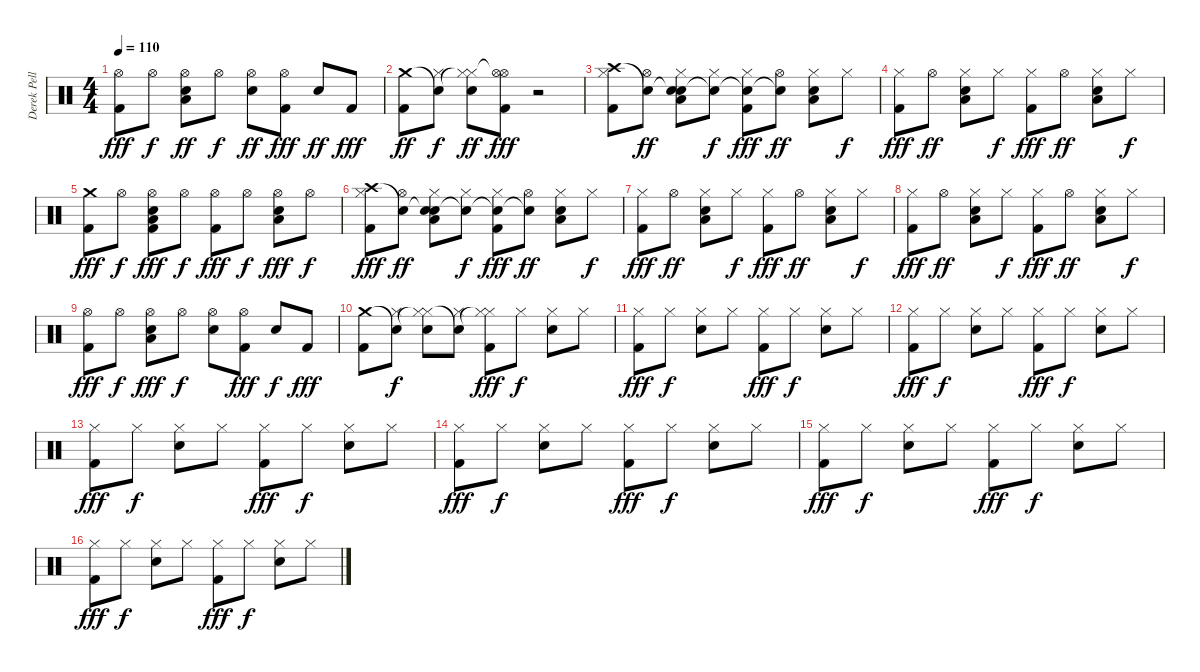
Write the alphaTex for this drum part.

\track ("Derek Pellici" "Derek Pell") {instrument percussion}
\staff {score}
\articulation defaults
\ts (4 4)
\tempo 110
\clef neutral
\ks c
("Hi-Hat (open)" "Kick (hit) 2").8{dy fff} "Hi-Hat (open)".8{dy f} ("Hi-Hat (open)" "Low Floor Tom (hit)" "Snare (hit) 2").8{dy ff} "Hi-Hat (open)".8{dy f} ("Hi-Hat (open)" "Snare (hit) 2").8{dy ff} ("Hi-Hat (open)" "Kick (hit) 2").8{dy fff} "Snare (hit) 2".8{dy ff} "Kick (hit) 2".8{dy fff} |
("Crash medium (hit)" "Kick (hit) 2").8{dy ff} ("Snare (hit)"{t} "Hi-Hat (closed)").8{dy f} ("Hi-Hat (closed)"{t} "Hi-Hat (closed)" "Snare (hit) 2").8{dy ff} ("Hi-Hat (open)"{t} "Hi-Hat (open)" "Kick (hit) 2").8{dy fff} r.2 |
("Crash high (hit)" "Hi-Hat (closed)" "Kick (hit) 2").8 ("Snare (hit)"{t} "Hi-Hat (open)").8{dy ff} ("Snare (hit)"{t} "Hi-Hat (closed)" "Low Floor Tom (hit)" "Snare (hit) 2").8 ("Snare (hit)"{t} "Hi-Hat (closed)").8{dy f} ("Snare (hit)"{t} "Hi-Hat (closed)" "Kick (hit) 2").8{dy fff} ("Snare (hit)"{t} "Hi-Hat (open)").8{dy ff} ("Hi-Hat (closed)" "Low Floor Tom (hit)" "Snare (hit) 2").8 "Hi-Hat (closed)".8{dy f} |
("Hi-Hat (closed)" "Kick (hit) 2").8{dy fff} "Hi-Hat (open)".8{dy ff} ("Hi-Hat (closed)" "Low Floor Tom (hit)" "Snare (hit) 2").8 "Hi-Hat (closed)".8{dy f} ("Hi-Hat (closed)" "Kick (hit) 2").8{dy fff} "Hi-Hat (open)".8{dy ff} ("Hi-Hat (closed)" "Low Floor Tom (hit)" "Snare (hit) 2").8 "Hi-Hat (closed)".8{dy f} |
("Crash medium (hit)" "Kick (hit) 2").8{dy fff} "Hi-Hat (open)".8{dy f} ("Hi-Hat (open)" "Low Floor Tom (hit)" "Snare (hit) 2" "Kick (hit) 2").8{dy fff} "Hi-Hat (open)".8{dy f} ("Hi-Hat (open)" "Kick (hit) 2").8{dy fff} "Hi-Hat (open)".8{dy f} ("Hi-Hat (open)" "Low Floor Tom (hit)" "Snare (hit) 2").8{dy fff} "Hi-Hat (open)".8{dy f} |
("Crash high (hit)" "Hi-Hat (closed)" "Kick (hit) 2").8{dy fff} ("Snare (hit)"{t} "Hi-Hat (open)").8{dy ff} ("Snare (hit)"{t} "Hi-Hat (closed)" "Low Floor Tom (hit)" "Snare (hit) 2").8 ("Snare (hit)"{t} "Hi-Hat (closed)").8{dy f} ("Snare (hit)"{t} "Hi-Hat (closed)" "Kick (hit) 2").8{dy fff} ("Snare (hit)"{t} "Hi-Hat (open)").8{dy ff} ("Hi-Hat (closed)" "Low Floor Tom (hit)" "Snare (hit) 2").8 "Hi-Hat (closed)".8{dy f} |
("Hi-Hat (closed)" "Kick (hit) 2").8{dy fff} "Hi-Hat (open)".8{dy ff} ("Hi-Hat (closed)" "Low Floor Tom (hit)" "Snare (hit) 2").8 "Hi-Hat (closed)".8{dy f} ("Hi-Hat (closed)" "Kick (hit) 2").8{dy fff} "Hi-Hat (open)".8{dy ff} ("Hi-Hat (closed)" "Low Floor Tom (hit)" "Snare (hit) 2").8 "Hi-Hat (closed)".8{dy f} |
("Hi-Hat (closed)" "Kick (hit) 2").8{dy fff} "Hi-Hat (open)".8{dy ff} ("Hi-Hat (closed)" "Low Floor Tom (hit)" "Snare (hit) 2").8 "Hi-Hat (closed)".8{dy f} ("Hi-Hat (closed)" "Kick (hit) 2").8{dy fff} "Hi-Hat (open)".8{dy ff} ("Hi-Hat (closed)" "Low Floor Tom (hit)" "Snare (hit) 2").8 "Hi-Hat (closed)".8{dy f} |
("Hi-Hat (open)" "Kick (hit) 2").8{dy fff} "Hi-Hat (open)".8{dy f} ("Hi-Hat (open)" "Low Floor Tom (hit)" "Snare (hit) 2").8{dy fff} "Hi-Hat (open)".8{dy f} ("Hi-Hat (open)" "Snare (hit) 2").8 ("Hi-Hat (open)" "Kick (hit) 2").8{dy fff} "Snare (hit) 2".8{dy f} "Kick (hit) 2".8{dy fff} |
("Crash medium (hit)" "Kick (hit) 2").8 ("Snare (hit)"{t} "Hi-Hat (closed)").8{dy f} ("Hi-Hat (closed)"{t} "Hi-Hat (closed)" "Snare (hit) 2").8 ("Snare (hit)"{t} "Hi-Hat (closed)").8 ("Hi-Hat (closed)"{t} "Hi-Hat (closed)" "Kick (hit) 2").8{dy fff} "Hi-Hat (closed)".8{dy f} ("Hi-Hat (closed)" "Snare (hit) 2").8 "Hi-Hat (closed)".8 |
("Hi-Hat (closed)" "Kick (hit) 2").8{dy fff} "Hi-Hat (closed)".8{dy f} ("Hi-Hat (closed)" "Snare (hit) 2").8 "Hi-Hat (closed)".8 ("Hi-Hat (closed)" "Kick (hit) 2").8{dy fff} "Hi-Hat (closed)".8{dy f} ("Hi-Hat (closed)" "Snare (hit) 2").8 "Hi-Hat (closed)".8 |
("Hi-Hat (closed)" "Kick (hit) 2").8{dy fff} "Hi-Hat (closed)".8{dy f} ("Hi-Hat (closed)" "Snare (hit) 2").8 "Hi-Hat (closed)".8 ("Hi-Hat (closed)" "Kick (hit) 2").8{dy fff} "Hi-Hat (closed)".8{dy f} ("Hi-Hat (closed)" "Snare (hit) 2").8 "Hi-Hat (closed)".8 |
("Hi-Hat (closed)" "Kick (hit) 2").8{dy fff} "Hi-Hat (closed)".8{dy f} ("Hi-Hat (closed)" "Snare (hit) 2").8 "Hi-Hat (closed)".8 ("Hi-Hat (closed)" "Kick (hit) 2").8{dy fff} "Hi-Hat (closed)".8{dy f} ("Hi-Hat (closed)" "Snare (hit) 2").8 "Hi-Hat (closed)".8 |
("Hi-Hat (closed)" "Kick (hit) 2").8{dy fff} "Hi-Hat (closed)".8{dy f} ("Hi-Hat (closed)" "Snare (hit) 2").8 "Hi-Hat (closed)".8 ("Hi-Hat (closed)" "Kick (hit) 2").8{dy fff} "Hi-Hat (closed)".8{dy f} ("Hi-Hat (closed)" "Snare (hit) 2").8 "Hi-Hat (closed)".8 |
("Hi-Hat (closed)" "Kick (hit) 2").8{dy fff} "Hi-Hat (closed)".8{dy f} ("Hi-Hat (closed)" "Snare (hit) 2").8 "Hi-Hat (closed)".8 ("Hi-Hat (closed)" "Kick (hit) 2").8{dy fff} "Hi-Hat (closed)".8{dy f} ("Hi-Hat (closed)" "Snare (hit) 2").8 "Hi-Hat (closed)".8 |
("Hi-Hat (closed)" "Kick (hit) 2").8{dy fff} "Hi-Hat (closed)".8{dy f} ("Hi-Hat (closed)" "Snare (hit) 2").8 "Hi-Hat (closed)".8 ("Hi-Hat (closed)" "Kick (hit) 2").8{dy fff} "Hi-Hat (closed)".8{dy f} ("Hi-Hat (closed)" "Snare (hit) 2").8 "Hi-Hat (closed)".8
